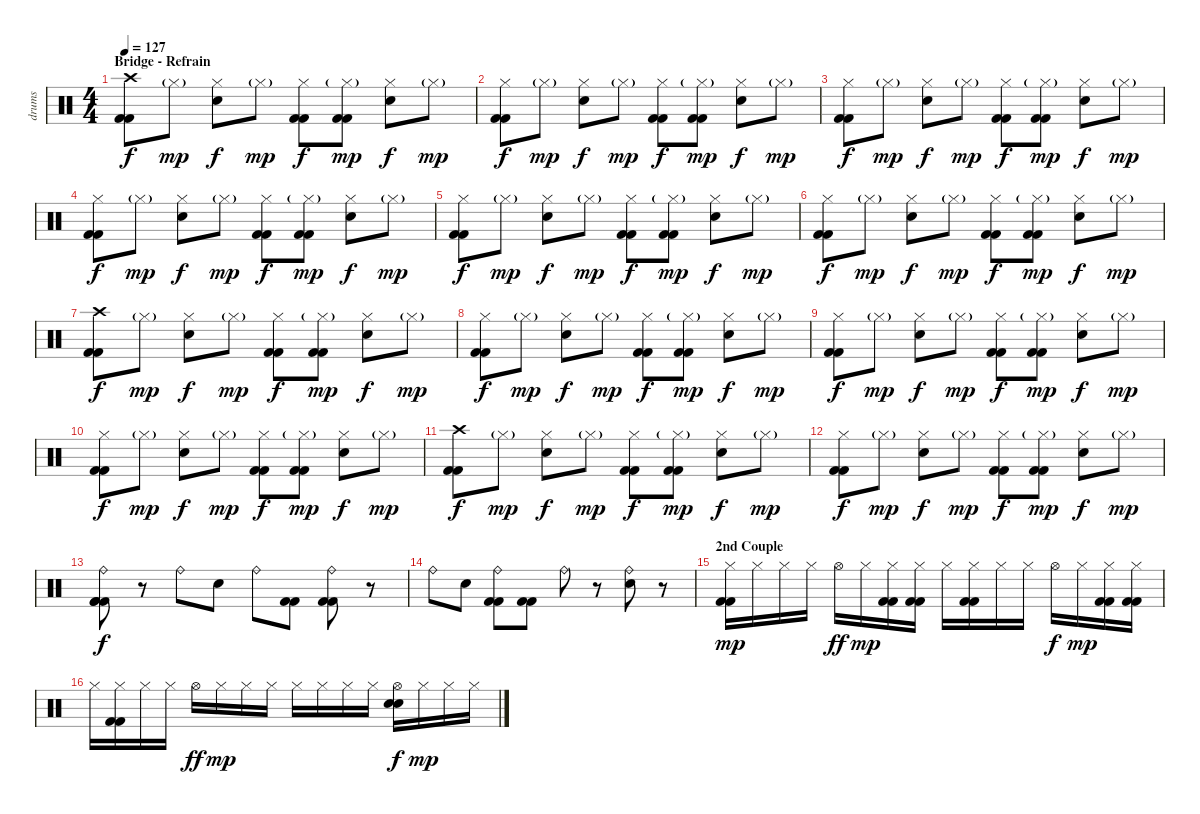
\track ("drums" "drums") {instrument percussion}
\staff {score}
\articulation defaults
\ts (4 4)
\section ("" "Bridge - Refrain")
\tempo 127
\clef neutral
\ks c
("Crash high (hit)" "Kick (hit) 2" "Kick (hit) 2").8{dy f} "Hi-Hat (closed)"{g}.8{dy mp} ("Hi-Hat (closed)" "Electric Snare (hit)").8{dy f} "Hi-Hat (closed)"{g}.8{dy mp} ("Hi-Hat (closed)" "Kick (hit) 2" "Kick (hit) 2").8{dy f} ("Hi-Hat (closed)"{g} "Kick (hit) 2" "Kick (hit) 2").8{dy mp} ("Hi-Hat (closed)" "Electric Snare (hit)").8{dy f} "Hi-Hat (closed)"{g}.8{dy mp} |
("Hi-Hat (closed)" "Kick (hit) 2" "Kick (hit) 2").8{dy f} "Hi-Hat (closed)"{g}.8{dy mp} ("Hi-Hat (closed)" "Electric Snare (hit)").8{dy f} "Hi-Hat (closed)"{g}.8{dy mp} ("Hi-Hat (closed)" "Kick (hit) 2" "Kick (hit) 2").8{dy f} ("Hi-Hat (closed)"{g} "Kick (hit) 2" "Kick (hit) 2").8{dy mp} ("Hi-Hat (closed)" "Electric Snare (hit)").8{dy f} "Hi-Hat (closed)"{g}.8{dy mp} |
("Hi-Hat (closed)" "Kick (hit) 2" "Kick (hit) 2").8{dy f} "Hi-Hat (closed)"{g}.8{dy mp} ("Hi-Hat (closed)" "Electric Snare (hit)").8{dy f} "Hi-Hat (closed)"{g}.8{dy mp} ("Hi-Hat (closed)" "Kick (hit) 2" "Kick (hit) 2").8{dy f} ("Hi-Hat (closed)"{g} "Kick (hit) 2" "Kick (hit) 2").8{dy mp} ("Hi-Hat (closed)" "Electric Snare (hit)").8{dy f} "Hi-Hat (closed)"{g}.8{dy mp} |
("Hi-Hat (closed)" "Kick (hit) 2" "Kick (hit) 2").8{dy f} "Hi-Hat (closed)"{g}.8{dy mp} ("Hi-Hat (closed)" "Electric Snare (hit)").8{dy f} "Hi-Hat (closed)"{g}.8{dy mp} ("Hi-Hat (closed)" "Kick (hit) 2" "Kick (hit) 2").8{dy f} ("Hi-Hat (closed)"{g} "Kick (hit) 2" "Kick (hit) 2").8{dy mp} ("Hi-Hat (closed)" "Electric Snare (hit)").8{dy f} "Hi-Hat (closed)"{g}.8{dy mp} |
("Hi-Hat (closed)" "Kick (hit) 2" "Kick (hit) 2").8{dy f} "Hi-Hat (closed)"{g}.8{dy mp} ("Hi-Hat (closed)" "Electric Snare (hit)").8{dy f} "Hi-Hat (closed)"{g}.8{dy mp} ("Hi-Hat (closed)" "Kick (hit) 2" "Kick (hit) 2").8{dy f} ("Hi-Hat (closed)"{g} "Kick (hit) 2" "Kick (hit) 2").8{dy mp} ("Hi-Hat (closed)" "Electric Snare (hit)").8{dy f} "Hi-Hat (closed)"{g}.8{dy mp} |
("Hi-Hat (closed)" "Kick (hit) 2" "Kick (hit) 2").8{dy f} "Hi-Hat (closed)"{g}.8{dy mp} ("Hi-Hat (closed)" "Electric Snare (hit)").8{dy f} "Hi-Hat (closed)"{g}.8{dy mp} ("Hi-Hat (closed)" "Kick (hit) 2" "Kick (hit) 2").8{dy f} ("Hi-Hat (closed)"{g} "Kick (hit) 2" "Kick (hit) 2").8{dy mp} ("Hi-Hat (closed)" "Electric Snare (hit)").8{dy f} "Hi-Hat (closed)"{g}.8{dy mp} |
("Crash high (hit)" "Kick (hit) 2" "Kick (hit) 2").8{dy f} "Hi-Hat (closed)"{g}.8{dy mp} ("Hi-Hat (closed)" "Electric Snare (hit)").8{dy f} "Hi-Hat (closed)"{g}.8{dy mp} ("Hi-Hat (closed)" "Kick (hit) 2" "Kick (hit) 2").8{dy f} ("Hi-Hat (closed)"{g} "Kick (hit) 2" "Kick (hit) 2").8{dy mp} ("Hi-Hat (closed)" "Electric Snare (hit)").8{dy f} "Hi-Hat (closed)"{g}.8{dy mp} |
("Hi-Hat (closed)" "Kick (hit) 2" "Kick (hit) 2").8{dy f} "Hi-Hat (closed)"{g}.8{dy mp} ("Hi-Hat (closed)" "Electric Snare (hit)").8{dy f} "Hi-Hat (closed)"{g}.8{dy mp} ("Hi-Hat (closed)" "Kick (hit) 2" "Kick (hit) 2").8{dy f} ("Hi-Hat (closed)"{g} "Kick (hit) 2" "Kick (hit) 2").8{dy mp} ("Hi-Hat (closed)" "Electric Snare (hit)").8{dy f} "Hi-Hat (closed)"{g}.8{dy mp} |
("Hi-Hat (closed)" "Kick (hit) 2" "Kick (hit) 2").8{dy f} "Hi-Hat (closed)"{g}.8{dy mp} ("Hi-Hat (closed)" "Electric Snare (hit)").8{dy f} "Hi-Hat (closed)"{g}.8{dy mp} ("Hi-Hat (closed)" "Kick (hit) 2" "Kick (hit) 2").8{dy f} ("Hi-Hat (closed)"{g} "Kick (hit) 2" "Kick (hit) 2").8{dy mp} ("Hi-Hat (closed)" "Electric Snare (hit)").8{dy f} "Hi-Hat (closed)"{g}.8{dy mp} |
("Hi-Hat (closed)" "Kick (hit) 2" "Kick (hit) 2").8{dy f} "Hi-Hat (closed)"{g}.8{dy mp} ("Hi-Hat (closed)" "Electric Snare (hit)").8{dy f} "Hi-Hat (closed)"{g}.8{dy mp} ("Hi-Hat (closed)" "Kick (hit) 2" "Kick (hit) 2").8{dy f} ("Hi-Hat (closed)"{g} "Kick (hit) 2" "Kick (hit) 2").8{dy mp} ("Hi-Hat (closed)" "Electric Snare (hit)").8{dy f} "Hi-Hat (closed)"{g}.8{dy mp} |
("Crash high (hit)" "Kick (hit) 2" "Kick (hit) 2").8{dy f} "Hi-Hat (closed)"{g}.8{dy mp} ("Hi-Hat (closed)" "Electric Snare (hit)").8{dy f} "Hi-Hat (closed)"{g}.8{dy mp} ("Hi-Hat (closed)" "Kick (hit) 2" "Kick (hit) 2").8{dy f} ("Hi-Hat (closed)"{g} "Kick (hit) 2" "Kick (hit) 2").8{dy mp} ("Hi-Hat (closed)" "Electric Snare (hit)").8{dy f} "Hi-Hat (closed)"{g}.8{dy mp} |
("Hi-Hat (closed)" "Kick (hit) 2" "Kick (hit) 2").8{dy f} "Hi-Hat (closed)"{g}.8{dy mp} ("Hi-Hat (closed)" "Electric Snare (hit)").8{dy f} "Hi-Hat (closed)"{g}.8{dy mp} ("Hi-Hat (closed)" "Kick (hit) 2" "Kick (hit) 2").8{dy f} ("Hi-Hat (closed)"{g} "Kick (hit) 2" "Kick (hit) 2").8{dy mp} ("Hi-Hat (closed)" "Electric Snare (hit)").8{dy f} "Hi-Hat (closed)"{g}.8{dy mp} |
("Ride (bell)" "Kick (hit) 2" "Kick (hit) 2" "Kick (hit) 2").8{dy f} r.8 "Ride (bell)".8 "Electric Snare (hit)".8 "Ride (bell)".8 ("Kick (hit) 2" "Kick (hit) 2").8 ("Ride (bell)" "Kick (hit) 2" "Kick (hit) 2").8 r.8 |
"Ride (bell)".8 "Electric Snare (hit)".8 ("Ride (bell)" "Kick (hit) 2" "Kick (hit) 2").8 ("Kick (hit) 2" "Kick (hit) 2").8 "Ride (bell)".8 r.8 ("Ride (bell)" "Electric Snare (hit)").8 r.8 |
\section ("" "2nd Couple")
("Hi-Hat (closed)" "Kick (hit) 2" "Kick (hit) 2").16{dy mp} "Hi-Hat (closed)".16 "Hi-Hat (closed)".16 "Hi-Hat (closed)".16 "Hi-Hat (open)".16{dy ff} "Hi-Hat (closed)".16{dy mp} ("Hi-Hat (closed)" "Kick (hit) 2" "Kick (hit) 2").16 ("Hi-Hat (closed)" "Kick (hit) 2" "Kick (hit) 2").16 "Hi-Hat (closed)".16 ("Hi-Hat (closed)" "Kick (hit) 2" "Kick (hit) 2").16 "Hi-Hat (closed)".16 "Hi-Hat (closed)".16 "Hi-Hat (open)".16{dy f} "Hi-Hat (closed)".16{dy mp} ("Hi-Hat (closed)" "Kick (hit) 2" "Kick (hit) 2").16 ("Hi-Hat (closed)" "Kick (hit) 2" "Kick (hit) 2").16 |
"Hi-Hat (closed)".16 ("Hi-Hat (closed)" "Kick (hit) 2" "Kick (hit) 2").16 "Hi-Hat (closed)".16 "Hi-Hat (closed)".16 "Hi-Hat (open)".16{dy ff} "Hi-Hat (closed)".16{dy mp} "Hi-Hat (closed)".16 "Hi-Hat (closed)".16 "Hi-Hat (closed)".16 "Hi-Hat (closed)".16 "Hi-Hat (closed)".16 "Hi-Hat (closed)".16 ("Hi-Hat (open)" "Electric Snare (hit)" "Electric Snare (hit)").16{dy f} "Hi-Hat (closed)".16{dy mp} "Hi-Hat (closed)".16 "Hi-Hat (closed)".16
